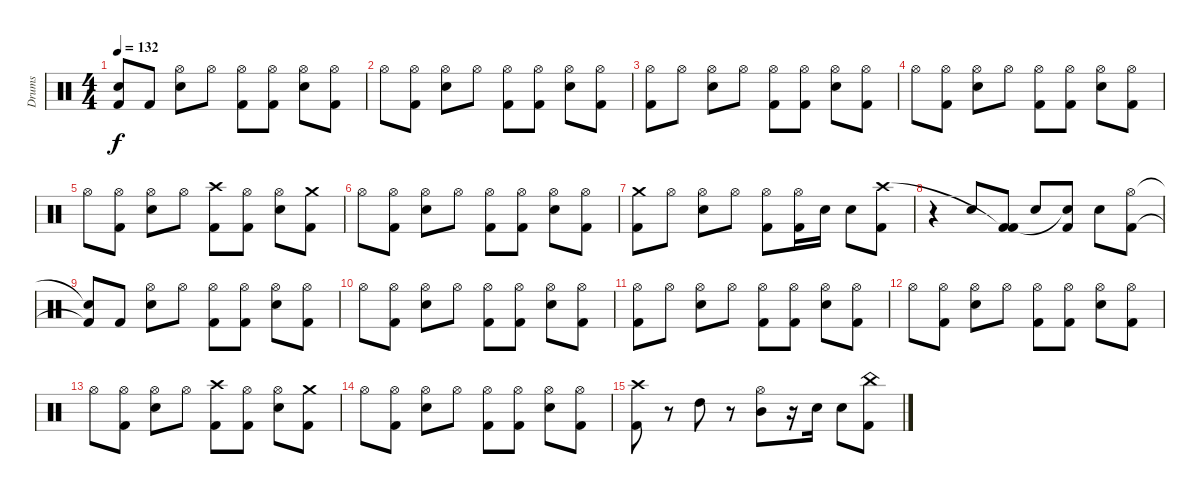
\track ("Drums" "Drums") {instrument percussion}
\staff
\articulation defaults
\ts (4 4)
\tempo 132
\clef neutral
\ks c
("Kick (hit) 2"{t} "Snare (hit)"{t}).8{dy f} "Kick (hit) 2".8 ("Snare (hit) 2" "Hi-Hat (open)").8 "Hi-Hat (open)".8 ("Kick (hit) 2" "Hi-Hat (open)").8 ("Kick (hit) 2" "Hi-Hat (open)").8 ("Snare (hit) 2" "Hi-Hat (open)").8 ("Kick (hit) 2" "Hi-Hat (open)").8 |
"Hi-Hat (open)".8 ("Kick (hit) 2" "Hi-Hat (open)").8 ("Snare (hit) 2" "Hi-Hat (open)").8 "Hi-Hat (open)".8 ("Kick (hit) 2" "Hi-Hat (open)").8 ("Kick (hit) 2" "Hi-Hat (open)").8 ("Snare (hit) 2" "Hi-Hat (open)").8 ("Kick (hit) 2" "Hi-Hat (open)").8 |
("Kick (hit) 2" "Hi-Hat (open)").8 "Hi-Hat (open)".8 ("Snare (hit) 2" "Hi-Hat (open)").8 "Hi-Hat (open)".8 ("Kick (hit) 2" "Hi-Hat (open)").8 ("Kick (hit) 2" "Hi-Hat (open)").8 ("Snare (hit) 2" "Hi-Hat (open)").8 ("Kick (hit) 2" "Hi-Hat (open)").8 |
"Hi-Hat (open)".8 ("Kick (hit) 2" "Hi-Hat (open)").8 ("Snare (hit) 2" "Hi-Hat (open)").8 "Hi-Hat (open)".8 ("Kick (hit) 2" "Hi-Hat (open)").8 ("Kick (hit) 2" "Hi-Hat (open)").8 ("Snare (hit) 2" "Hi-Hat (open)").8 ("Kick (hit) 2" "Hi-Hat (open)").8 |
"Hi-Hat (open)".8 ("Kick (hit) 2" "Hi-Hat (open)").8 ("Snare (hit) 2" "Hi-Hat (open)").8 "Hi-Hat (open)".8 ("Kick (hit) 2" "Crash high (hit)").8 ("Kick (hit) 2" "Hi-Hat (open)").8 ("Snare (hit) 2" "Hi-Hat (open)").8 ("Kick (hit) 2" "Crash medium (hit)").8 |
"Hi-Hat (open)".8 ("Kick (hit) 2" "Hi-Hat (open)").8 ("Snare (hit) 2" "Hi-Hat (open)").8 "Hi-Hat (open)".8 ("Kick (hit) 2" "Hi-Hat (open)").8 ("Kick (hit) 2" "Hi-Hat (open)").8 ("Snare (hit) 2" "Hi-Hat (open)").8 ("Kick (hit) 2" "Hi-Hat (open)").8 |
("Kick (hit) 2" "Crash medium (hit)").8 "Hi-Hat (open)".8 ("Snare (hit) 2" "Hi-Hat (open)").8 "Hi-Hat (open)".8 ("Kick (hit) 2" "Hi-Hat (open)").8 ("Kick (hit) 2" "Hi-Hat (open)").16 "Snare (hit) 2".16 "Snare (hit) 2".8 ("Kick (hit) 2" "Crash high (hit)").8 |
r.4 "Snare (hit) 2".8 ("Kick (hit) 2" "Kick (hit) 2"{t}).8 "Snare (hit) 2".8 ("Kick (hit) 2" "Snare (hit)"{t}).8 "Snare (hit) 2".8 ("Kick (hit) 2" "Hi-Hat (open)").8 |
("Kick (hit) 2"{t} "Snare (hit)"{t}).8 "Kick (hit) 2".8 ("Snare (hit) 2" "Hi-Hat (open)").8 "Hi-Hat (open)".8 ("Kick (hit) 2" "Hi-Hat (open)").8 ("Kick (hit) 2" "Hi-Hat (open)").8 ("Snare (hit) 2" "Hi-Hat (open)").8 ("Kick (hit) 2" "Hi-Hat (open)").8 |
"Hi-Hat (open)".8 ("Kick (hit) 2" "Hi-Hat (open)").8 ("Snare (hit) 2" "Hi-Hat (open)").8 "Hi-Hat (open)".8 ("Kick (hit) 2" "Hi-Hat (open)").8 ("Kick (hit) 2" "Hi-Hat (open)").8 ("Snare (hit) 2" "Hi-Hat (open)").8 ("Kick (hit) 2" "Hi-Hat (open)").8 |
("Kick (hit) 2" "Hi-Hat (open)").8 "Hi-Hat (open)".8 ("Snare (hit) 2" "Hi-Hat (open)").8 "Hi-Hat (open)".8 ("Kick (hit) 2" "Hi-Hat (open)").8 ("Kick (hit) 2" "Hi-Hat (open)").8 ("Snare (hit) 2" "Hi-Hat (open)").8 ("Kick (hit) 2" "Hi-Hat (open)").8 |
"Hi-Hat (open)".8 ("Kick (hit) 2" "Hi-Hat (open)").8 ("Snare (hit) 2" "Hi-Hat (open)").8 "Hi-Hat (open)".8 ("Kick (hit) 2" "Hi-Hat (open)").8 ("Kick (hit) 2" "Hi-Hat (open)").8 ("Snare (hit) 2" "Hi-Hat (open)").8 ("Kick (hit) 2" "Hi-Hat (open)").8 |
"Hi-Hat (open)".8 ("Kick (hit) 2" "Hi-Hat (open)").8 ("Snare (hit) 2" "Hi-Hat (open)").8 "Hi-Hat (open)".8 ("Kick (hit) 2" "Crash high (hit)").8 ("Kick (hit) 2" "Hi-Hat (open)").8 ("Snare (hit) 2" "Hi-Hat (open)").8 ("Kick (hit) 2" "Crash medium (hit)").8 |
"Hi-Hat (open)".8 ("Kick (hit) 2" "Hi-Hat (open)").8 ("Snare (hit) 2" "Hi-Hat (open)").8 "Hi-Hat (open)".8 ("Kick (hit) 2" "Hi-Hat (open)").8 ("Kick (hit) 2" "Hi-Hat (open)").8 ("Snare (hit) 2" "Hi-Hat (open)").8 ("Kick (hit) 2" "Hi-Hat (open)").8 |
("Kick (hit) 2" "Crash high (hit)").8 r.8 "High Tom (hit)".8 r.8 ("Mid Tom (hit)" "Hi-Hat (open)").8 r.16 "Snare (hit) 2".16 "Snare (hit) 2".8 ("Kick (hit) 2" "China (hit)").8
